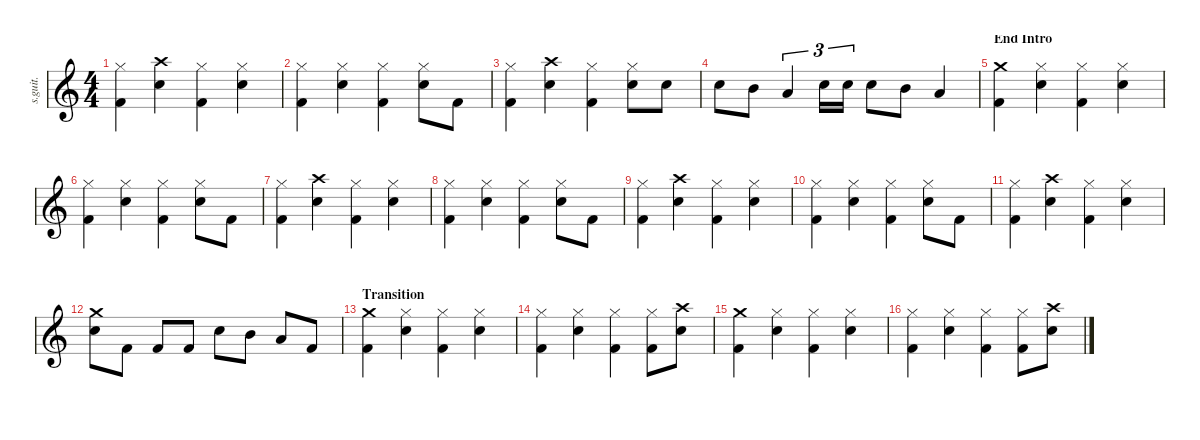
\defaultSystemsLayout 4
\hideDynamics
\bracketExtendMode nobrackets
\track ("Lars Ulrich (Drums)" "s.guit.") {instrument percussion}
\staff {score}
\articulation defaults
\ts (4 4)
\tempo (118 hide)
\clef g2
\ks c
("Hi-Hat (closed)" "Kick (hit) 2").4{lyrics (0 "") lyrics (1 "") lyrics (2 "") lyrics (3 "") lyrics (4 "") dy f} ("Crash high (hit)" "Snare (hit) 2").4{lyrics (0 "") lyrics (1 "") lyrics (2 "") lyrics (3 "") lyrics (4 "")} ("Hi-Hat (closed)" "Kick (hit) 2").4{lyrics (0 "") lyrics (1 "") lyrics (2 "") lyrics (3 "") lyrics (4 "")} ("Hi-Hat (closed)" "Snare (hit) 2").4{lyrics (0 "") lyrics (1 "") lyrics (2 "") lyrics (3 "") lyrics (4 "")} |
("Hi-Hat (closed)" "Kick (hit) 2").4{lyrics (0 "") lyrics (1 "") lyrics (2 "") lyrics (3 "") lyrics (4 "")} ("Hi-Hat (closed)" "Snare (hit) 2").4{lyrics (0 "") lyrics (1 "") lyrics (2 "") lyrics (3 "") lyrics (4 "")} ("Hi-Hat (closed)" "Kick (hit) 2").4{lyrics (0 "") lyrics (1 "") lyrics (2 "") lyrics (3 "") lyrics (4 "")} ("Hi-Hat (closed)" "Snare (hit) 2").8{lyrics (0 "") lyrics (1 "") lyrics (2 "") lyrics (3 "") lyrics (4 "")} "Kick (hit) 2".8{lyrics (0 "") lyrics (1 "") lyrics (2 "") lyrics (3 "") lyrics (4 "")} |
("Hi-Hat (closed)" "Kick (hit) 2").4{lyrics (0 "") lyrics (1 "") lyrics (2 "") lyrics (3 "") lyrics (4 "")} ("Crash high (hit)" "Snare (hit) 2").4{lyrics (0 "") lyrics (1 "") lyrics (2 "") lyrics (3 "") lyrics (4 "")} ("Hi-Hat (closed)" "Kick (hit) 2").4{lyrics (0 "") lyrics (1 "") lyrics (2 "") lyrics (3 "") lyrics (4 "")} ("Hi-Hat (closed)" "Snare (hit) 2").8{lyrics (0 "") lyrics (1 "") lyrics (2 "") lyrics (3 "") lyrics (4 "")} "Snare (hit) 2".8{lyrics (0 "") lyrics (1 "") lyrics (2 "") lyrics (3 "") lyrics (4 "")} |
"Snare (hit) 2".8{lyrics (0 "") lyrics (1 "") lyrics (2 "") lyrics (3 "") lyrics (4 "")} "Mid Tom (hit)".8{lyrics (0 "") lyrics (1 "") lyrics (2 "") lyrics (3 "") lyrics (4 "")} "Low Tom (hit)".4{tu (3 2) lyrics (0 "") lyrics (1 "") lyrics (2 "") lyrics (3 "") lyrics (4 "")} "Snare (hit) 2".16{tu (3 2) lyrics (0 "") lyrics (1 "") lyrics (2 "") lyrics (3 "") lyrics (4 "")} "Snare (hit) 2".16{tu (3 2) lyrics (0 "") lyrics (1 "") lyrics (2 "") lyrics (3 "") lyrics (4 "")} "Snare (hit) 2".8{lyrics (0 "") lyrics (1 "") lyrics (2 "") lyrics (3 "") lyrics (4 "")} "Mid Tom (hit)".8{lyrics (0 "") lyrics (1 "") lyrics (2 "") lyrics (3 "") lyrics (4 "")} "Low Tom (hit)".4{lyrics (0 "") lyrics (1 "") lyrics (2 "") lyrics (3 "") lyrics (4 "")} |
\section ("" "End Intro")
("Crash medium (hit)" "Kick (hit) 2").4{lyrics (0 "") lyrics (1 "") lyrics (2 "") lyrics (3 "") lyrics (4 "")} ("Hi-Hat (closed)" "Snare (hit) 2").4{lyrics (0 "") lyrics (1 "") lyrics (2 "") lyrics (3 "") lyrics (4 "")} ("Hi-Hat (closed)" "Kick (hit) 2").4{lyrics (0 "") lyrics (1 "") lyrics (2 "") lyrics (3 "") lyrics (4 "")} ("Hi-Hat (closed)" "Snare (hit) 2").4{lyrics (0 "") lyrics (1 "") lyrics (2 "") lyrics (3 "") lyrics (4 "")} |
("Hi-Hat (closed)" "Kick (hit) 2").4{lyrics (0 "") lyrics (1 "") lyrics (2 "") lyrics (3 "") lyrics (4 "")} ("Hi-Hat (closed)" "Snare (hit) 2").4{lyrics (0 "") lyrics (1 "") lyrics (2 "") lyrics (3 "") lyrics (4 "")} ("Hi-Hat (closed)" "Kick (hit) 2").4{lyrics (0 "") lyrics (1 "") lyrics (2 "") lyrics (3 "") lyrics (4 "")} ("Hi-Hat (closed)" "Snare (hit) 2").8{lyrics (0 "") lyrics (1 "") lyrics (2 "") lyrics (3 "") lyrics (4 "")} "Kick (hit) 2".8{lyrics (0 "") lyrics (1 "") lyrics (2 "") lyrics (3 "") lyrics (4 "")} |
("Hi-Hat (closed)" "Kick (hit) 2").4{lyrics (0 "") lyrics (1 "") lyrics (2 "") lyrics (3 "") lyrics (4 "")} ("Crash high (hit)" "Snare (hit) 2").4{lyrics (0 "") lyrics (1 "") lyrics (2 "") lyrics (3 "") lyrics (4 "")} ("Hi-Hat (closed)" "Kick (hit) 2").4{lyrics (0 "") lyrics (1 "") lyrics (2 "") lyrics (3 "") lyrics (4 "")} ("Hi-Hat (closed)" "Snare (hit) 2").4{lyrics (0 "") lyrics (1 "") lyrics (2 "") lyrics (3 "") lyrics (4 "")} |
("Hi-Hat (closed)" "Kick (hit) 2").4{lyrics (0 "") lyrics (1 "") lyrics (2 "") lyrics (3 "") lyrics (4 "")} ("Hi-Hat (closed)" "Snare (hit) 2").4{lyrics (0 "") lyrics (1 "") lyrics (2 "") lyrics (3 "") lyrics (4 "")} ("Hi-Hat (closed)" "Kick (hit) 2").4{lyrics (0 "") lyrics (1 "") lyrics (2 "") lyrics (3 "") lyrics (4 "")} ("Hi-Hat (closed)" "Snare (hit) 2").8{lyrics (0 "") lyrics (1 "") lyrics (2 "") lyrics (3 "") lyrics (4 "")} "Kick (hit) 2".8{lyrics (0 "") lyrics (1 "") lyrics (2 "") lyrics (3 "") lyrics (4 "")} |
("Hi-Hat (closed)" "Kick (hit) 2").4{lyrics (0 "") lyrics (1 "") lyrics (2 "") lyrics (3 "") lyrics (4 "")} ("Crash high (hit)" "Snare (hit) 2").4{lyrics (0 "") lyrics (1 "") lyrics (2 "") lyrics (3 "") lyrics (4 "")} ("Hi-Hat (closed)" "Kick (hit) 2").4{lyrics (0 "") lyrics (1 "") lyrics (2 "") lyrics (3 "") lyrics (4 "")} ("Hi-Hat (closed)" "Snare (hit) 2").4{lyrics (0 "") lyrics (1 "") lyrics (2 "") lyrics (3 "") lyrics (4 "")} |
("Hi-Hat (closed)" "Kick (hit) 2").4{lyrics (0 "") lyrics (1 "") lyrics (2 "") lyrics (3 "") lyrics (4 "")} ("Hi-Hat (closed)" "Snare (hit) 2").4{lyrics (0 "") lyrics (1 "") lyrics (2 "") lyrics (3 "") lyrics (4 "")} ("Hi-Hat (closed)" "Kick (hit) 2").4{lyrics (0 "") lyrics (1 "") lyrics (2 "") lyrics (3 "") lyrics (4 "")} ("Hi-Hat (closed)" "Snare (hit) 2").8{lyrics (0 "") lyrics (1 "") lyrics (2 "") lyrics (3 "") lyrics (4 "")} "Kick (hit) 2".8{lyrics (0 "") lyrics (1 "") lyrics (2 "") lyrics (3 "") lyrics (4 "")} |
("Hi-Hat (closed)" "Kick (hit) 2").4{lyrics (0 "") lyrics (1 "") lyrics (2 "") lyrics (3 "") lyrics (4 "")} ("Crash high (hit)" "Snare (hit) 2").4{lyrics (0 "") lyrics (1 "") lyrics (2 "") lyrics (3 "") lyrics (4 "")} ("Hi-Hat (closed)" "Kick (hit) 2").4{lyrics (0 "") lyrics (1 "") lyrics (2 "") lyrics (3 "") lyrics (4 "")} ("Hi-Hat (closed)" "Snare (hit) 2").4{lyrics (0 "") lyrics (1 "") lyrics (2 "") lyrics (3 "") lyrics (4 "")} |
("Crash medium (hit)" "Snare (hit) 2").8{lyrics (0 "") lyrics (1 "") lyrics (2 "") lyrics (3 "") lyrics (4 "")} "Kick (hit) 2".8{lyrics (0 "") lyrics (1 "") lyrics (2 "") lyrics (3 "") lyrics (4 "")} "Kick (hit) 2".8{lyrics (0 "") lyrics (1 "") lyrics (2 "") lyrics (3 "") lyrics (4 "")} "Kick (hit) 2".8{lyrics (0 "") lyrics (1 "") lyrics (2 "") lyrics (3 "") lyrics (4 "")} "Snare (hit) 2".8{lyrics (0 "") lyrics (1 "") lyrics (2 "") lyrics (3 "") lyrics (4 "")} "Mid Tom (hit)".8{lyrics (0 "") lyrics (1 "") lyrics (2 "") lyrics (3 "") lyrics (4 "")} "Low Tom (hit)".8{lyrics (0 "") lyrics (1 "") lyrics (2 "") lyrics (3 "") lyrics (4 "")} "Kick (hit) 2".8{lyrics (0 "") lyrics (1 "") lyrics (2 "") lyrics (3 "") lyrics (4 "")} |
\section ("" "Transition")
("Crash medium (hit)" "Kick (hit) 2").4{lyrics (0 "") lyrics (1 "") lyrics (2 "") lyrics (3 "") lyrics (4 "")} ("Hi-Hat (closed)" "Snare (hit) 2").4{lyrics (0 "") lyrics (1 "") lyrics (2 "") lyrics (3 "") lyrics (4 "")} ("Hi-Hat (closed)" "Kick (hit) 2").4{lyrics (0 "") lyrics (1 "") lyrics (2 "") lyrics (3 "") lyrics (4 "")} ("Hi-Hat (closed)" "Snare (hit) 2").4{lyrics (0 "") lyrics (1 "") lyrics (2 "") lyrics (3 "") lyrics (4 "")} |
("Hi-Hat (closed)" "Kick (hit) 2").4{lyrics (0 "") lyrics (1 "") lyrics (2 "") lyrics (3 "") lyrics (4 "")} ("Hi-Hat (closed)" "Snare (hit) 2").4{lyrics (0 "") lyrics (1 "") lyrics (2 "") lyrics (3 "") lyrics (4 "")} ("Hi-Hat (closed)" "Kick (hit) 2").4{lyrics (0 "") lyrics (1 "") lyrics (2 "") lyrics (3 "") lyrics (4 "")} ("Hi-Hat (closed)" "Kick (hit) 2").8{lyrics (0 "") lyrics (1 "") lyrics (2 "") lyrics (3 "") lyrics (4 "")} ("Crash high (hit)" "Snare (hit) 2").8{lyrics (0 "") lyrics (1 "") lyrics (2 "") lyrics (3 "") lyrics (4 "")} |
("Crash medium (hit)" "Kick (hit) 2").4{lyrics (0 "") lyrics (1 "") lyrics (2 "") lyrics (3 "") lyrics (4 "")} ("Hi-Hat (closed)" "Snare (hit) 2").4{lyrics (0 "") lyrics (1 "") lyrics (2 "") lyrics (3 "") lyrics (4 "")} ("Hi-Hat (closed)" "Kick (hit) 2").4{lyrics (0 "") lyrics (1 "") lyrics (2 "") lyrics (3 "") lyrics (4 "")} ("Hi-Hat (closed)" "Snare (hit) 2").4{lyrics (0 "") lyrics (1 "") lyrics (2 "") lyrics (3 "") lyrics (4 "")} |
("Hi-Hat (closed)" "Kick (hit) 2").4{lyrics (0 "") lyrics (1 "") lyrics (2 "") lyrics (3 "") lyrics (4 "")} ("Hi-Hat (closed)" "Snare (hit) 2").4{lyrics (0 "") lyrics (1 "") lyrics (2 "") lyrics (3 "") lyrics (4 "")} ("Hi-Hat (closed)" "Kick (hit) 2").4{lyrics (0 "") lyrics (1 "") lyrics (2 "") lyrics (3 "") lyrics (4 "")} ("Hi-Hat (closed)" "Kick (hit) 2").8{lyrics (0 "") lyrics (1 "") lyrics (2 "") lyrics (3 "") lyrics (4 "")} ("Crash high (hit)" "Snare (hit) 2").8{lyrics (0 "") lyrics (1 "") lyrics (2 "") lyrics (3 "") lyrics (4 "")}
